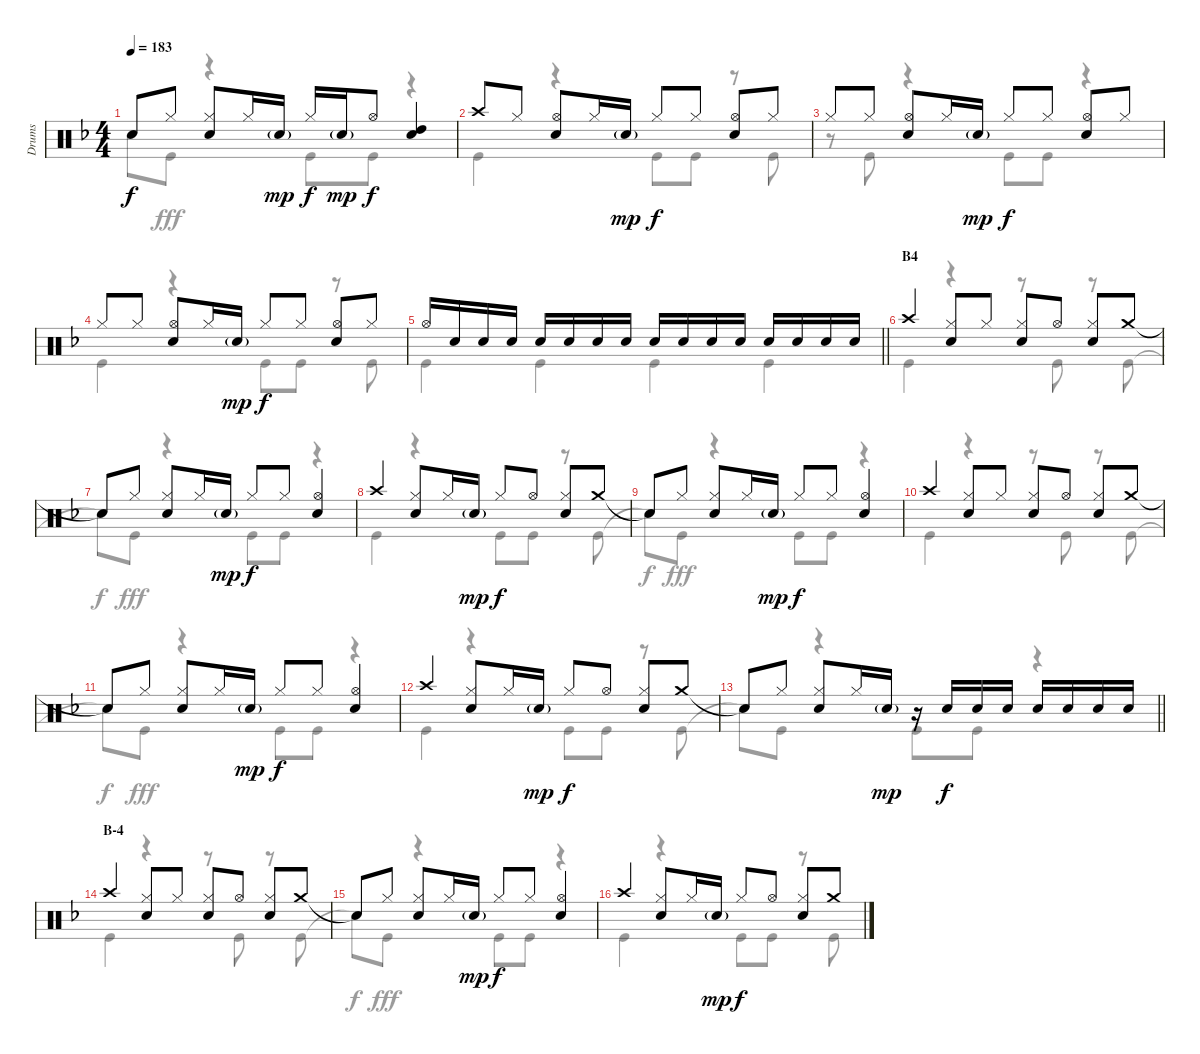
\track ("Drums" "Drums") {instrument percussion}
\staff {score}
\articulation defaults
\voice
\ts (4 4)
\tempo 183
\clef neutral
\ks f "Snare (hit)"{t}.8{dy f} "Hi-Hat (closed)".8
("Hi-Hat (closed)" "Snare (hit) 2").8 "Hi-Hat (closed)".16 "Snare (hit) 2"{g}.16{dy mp} "Hi-Hat (closed)".16{dy f} "Snare (hit) 2"{g}.16{dy mp} "Hi-Hat (open)".8{dy f} ("High Tom (hit)" "Snare (hit) 2").4 |
"Crash high (hit)".8 "Hi-Hat (closed)".8 ("Hi-Hat (open)" "Snare (hit) 2").8 "Hi-Hat (closed)".16 "Snare (hit) 2"{g}.16{dy mp} "Hi-Hat (closed)".8{dy f} "Hi-Hat (closed)".8 ("Hi-Hat (open)" "Snare (hit) 2").8 "Hi-Hat (closed)".8 |
"Hi-Hat (closed)".8 "Hi-Hat (closed)".8 ("Hi-Hat (open)" "Snare (hit) 2").8 "Hi-Hat (closed)".16 "Snare (hit) 2"{g}.16{dy mp} "Hi-Hat (closed)".8{dy f} "Hi-Hat (closed)".8 ("Hi-Hat (open)" "Snare (hit) 2").8 "Hi-Hat (closed)".8 |
"Hi-Hat (closed)".8 "Hi-Hat (closed)".8 ("Hi-Hat (open)" "Snare (hit) 2").8 "Hi-Hat (closed)".16 "Snare (hit) 2"{g}.16{dy mp} "Hi-Hat (closed)".8{dy f} "Hi-Hat (closed)".8 ("Hi-Hat (open)" "Snare (hit) 2").8 "Hi-Hat (closed)".8 |
\barLineRight lightlight "Hi-Hat (open)".16 "Snare (hit) 2".16 "Snare (hit) 2".16 "Snare (hit) 2".16 "Snare (hit) 2".16 "Snare (hit) 2".16 "Snare (hit) 2".16 "Snare (hit) 2".16 "Snare (hit) 2".16 "Snare (hit) 2".16 "Snare (hit) 2".16 "Snare (hit) 2".16 "Snare (hit) 2".16 "Snare (hit) 2".16 "Snare (hit) 2".16 "Snare (hit) 2".16
|
\section ("" "B4")
"Crash high (hit)".4 ("Hi-Hat (closed)" "Snare (hit) 2").8 "Hi-Hat (closed)".8 ("Hi-Hat (closed)" "Snare (hit) 2").8 "Hi-Hat (open)".8 ("Hi-Hat (closed)" "Snare (hit) 2").8 "Crash medium (hit)".8 |
"Snare (hit)"{t}.8 "Hi-Hat (closed)".8 ("Hi-Hat (closed)" "Snare (hit) 2").8 "Hi-Hat (closed)".16 "Snare (hit) 2"{g}.16{dy mp} "Hi-Hat (closed)".8{dy f} "Hi-Hat (closed)".8 ("Hi-Hat (open)" "Snare (hit) 2").4 |
"Crash high (hit)".4 ("Hi-Hat (closed)" "Snare (hit) 2").8 "Hi-Hat (closed)".16 "Snare (hit) 2"{g}.16{dy mp} "Hi-Hat (closed)".8{dy f} "Hi-Hat (open)".8 ("Hi-Hat (closed)" "Snare (hit) 2").8 "Crash medium (hit)".8 |
"Snare (hit)"{t}.8 "Hi-Hat (closed)".8 ("Hi-Hat (closed)" "Snare (hit) 2").8 "Hi-Hat (closed)".16 "Snare (hit) 2"{g}.16{dy mp} "Hi-Hat (closed)".8{dy f} "Hi-Hat (closed)".8 ("Hi-Hat (open)" "Snare (hit) 2").4 |
"Crash high (hit)".4 ("Hi-Hat (closed)" "Snare (hit) 2").8 "Hi-Hat (closed)".8 ("Hi-Hat (closed)" "Snare (hit) 2").8 "Hi-Hat (open)".8 ("Hi-Hat (closed)" "Snare (hit) 2").8 "Crash medium (hit)".8 |
"Snare (hit)"{t}.8 "Hi-Hat (closed)".8 ("Hi-Hat (closed)" "Snare (hit) 2").8 "Hi-Hat (closed)".16 "Snare (hit) 2"{g}.16{dy mp} "Hi-Hat (closed)".8{dy f} "Hi-Hat (closed)".8 ("Hi-Hat (open)" "Snare (hit) 2").4 |
"Crash high (hit)".4 ("Hi-Hat (closed)" "Snare (hit) 2").8 "Hi-Hat (closed)".16 "Snare (hit) 2"{g}.16{dy mp} "Hi-Hat (closed)".8{dy f} "Hi-Hat (open)".8 ("Hi-Hat (closed)" "Snare (hit) 2").8 "Crash medium (hit)".8 |
\barLineRight lightlight "Snare (hit)"{t}.8 "Hi-Hat (closed)".8
("Hi-Hat (closed)" "Snare (hit) 2").8 "Hi-Hat (closed)".16 "Snare (hit) 2"{g}.16{dy mp} r.16 "Snare (hit) 2".16{dy f} "Snare (hit) 2".16 "Snare (hit) 2".16 "Snare (hit) 2".16 "Snare (hit) 2".16 "Snare (hit) 2".16 "Snare (hit) 2".16 |
\section ("" "B-4")
"Crash high (hit)".4 ("Hi-Hat (closed)" "Snare (hit) 2").8 "Hi-Hat (closed)".8 ("Hi-Hat (closed)" "Snare (hit) 2").8 "Hi-Hat (open)".8 ("Hi-Hat (closed)" "Snare (hit) 2").8 "Crash medium (hit)".8 |
"Snare (hit)"{t}.8 "Hi-Hat (closed)".8 ("Hi-Hat (closed)" "Snare (hit) 2").8 "Hi-Hat (closed)".16 "Snare (hit) 2"{g}.16{dy mp} "Hi-Hat (closed)".8{dy f} "Hi-Hat (closed)".8 ("Hi-Hat (open)" "Snare (hit) 2").4 |
"Crash high (hit)".4 ("Hi-Hat (closed)" "Snare (hit) 2").8 "Hi-Hat (closed)".16 "Snare (hit) 2"{g}.16{dy mp} "Hi-Hat (closed)".8{dy f} "Hi-Hat (open)".8 ("Hi-Hat (closed)" "Snare (hit) 2").8 "Crash medium (hit)".8
\voice
\clef neutral
\ottava regular
\simile none
\ks f "Snare (hit)"{t}.8{dy f} "Kick (hit)".8{dy fff}
r.4 "Kick (hit)".8 "Kick (hit)".8 r.4 |
"Kick (hit)".4 r.4 "Kick (hit)".8 "Kick (hit)".8 r.8 "Kick (hit)".8 |
r.8 "Kick (hit)".8 r.4 "Kick (hit)".8 "Kick (hit)".8 r.4 |
"Kick (hit)".4 r.4 "Kick (hit)".8 "Kick (hit)".8 r.8 "Kick (hit)".8 |
\barLineRight lightlight "Kick (hit)".4 "Kick (hit)".4 "Kick (hit)".4 "Kick (hit)".4
|
"Kick (hit)".4 r.4 r.8 "Kick (hit)".8 r.8 "Kick (hit)".8 |
"Snare (hit)"{t}.8{dy f} "Kick (hit)".8{dy fff} r.4 "Kick (hit)".8 "Kick (hit)".8 r.4 |
"Kick (hit)".4 r.4 "Kick (hit)".8 "Kick (hit)".8 r.8 "Kick (hit)".8 |
"Snare (hit)"{t}.8{dy f} "Kick (hit)".8{dy fff} r.4 "Kick (hit)".8 "Kick (hit)".8 r.4 |
"Kick (hit)".4 r.4 r.8 "Kick (hit)".8 r.8 "Kick (hit)".8 |
"Snare (hit)"{t}.8{dy f} "Kick (hit)".8{dy fff} r.4 "Kick (hit)".8 "Kick (hit)".8 r.4 |
"Kick (hit)".4 r.4 "Kick (hit)".8 "Kick (hit)".8 r.8 "Kick (hit)".8 |
\barLineRight lightlight "Snare (hit)"{t}.8 "Kick (hit)".8
r.4 "Kick (hit)".8 "Kick (hit)".8 r.4 |
"Kick (hit)".4 r.4 r.8 "Kick (hit)".8 r.8 "Kick (hit)".8 |
"Snare (hit)"{t}.8{dy f} "Kick (hit)".8{dy fff} r.4 "Kick (hit)".8 "Kick (hit)".8 r.4 |
"Kick (hit)".4 r.4 "Kick (hit)".8 "Kick (hit)".8 r.8 "Kick (hit)".8
